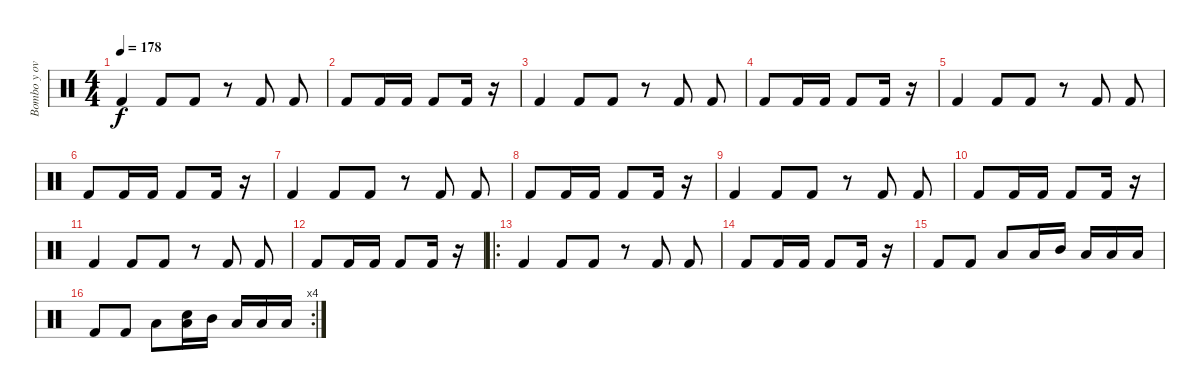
\track ("Bombo y overdubs (bateria)" "Bombo y ov") {instrument percussion}
\staff {score}
\articulation defaults
\ts (4 4)
\tempo 178
\clef neutral
\ks c "Kick (hit) 2".4{dy f} "Kick (hit) 2".8 "Kick (hit) 2".8
r.8 "Kick (hit) 2".8 "Kick (hit) 2".8 |
"Kick (hit) 2".8 "Kick (hit) 2".16 "Kick (hit) 2".16 "Kick (hit) 2".8 "Kick (hit) 2".16 r.16 |
"Kick (hit) 2".4 "Kick (hit) 2".8 "Kick (hit) 2".8 r.8 "Kick (hit) 2".8 "Kick (hit) 2".8 |
"Kick (hit) 2".8 "Kick (hit) 2".16 "Kick (hit) 2".16 "Kick (hit) 2".8 "Kick (hit) 2".16 r.16 |
"Kick (hit) 2".4 "Kick (hit) 2".8 "Kick (hit) 2".8 r.8 "Kick (hit) 2".8 "Kick (hit) 2".8 |
"Kick (hit) 2".8 "Kick (hit) 2".16 "Kick (hit) 2".16 "Kick (hit) 2".8 "Kick (hit) 2".16 r.16 |
"Kick (hit) 2".4 "Kick (hit) 2".8 "Kick (hit) 2".8 r.8 "Kick (hit) 2".8 "Kick (hit) 2".8 |
"Kick (hit) 2".8 "Kick (hit) 2".16 "Kick (hit) 2".16 "Kick (hit) 2".8 "Kick (hit) 2".16 r.16 |
"Kick (hit) 2".4 "Kick (hit) 2".8 "Kick (hit) 2".8 r.8 "Kick (hit) 2".8 "Kick (hit) 2".8 |
"Kick (hit) 2".8 "Kick (hit) 2".16 "Kick (hit) 2".16 "Kick (hit) 2".8 "Kick (hit) 2".16 r.16 |
"Kick (hit) 2".4 "Kick (hit) 2".8 "Kick (hit) 2".8 r.8 "Kick (hit) 2".8 "Kick (hit) 2".8 |
"Kick (hit) 2".8 "Kick (hit) 2".16 "Kick (hit) 2".16 "Kick (hit) 2".8 "Kick (hit) 2".16 r.16 |
\ro "Kick (hit) 2".4 "Kick (hit) 2".8 "Kick (hit) 2".8
r.8 "Kick (hit) 2".8 "Kick (hit) 2".8 |
"Kick (hit) 2".8 "Kick (hit) 2".16 "Kick (hit) 2".16 "Kick (hit) 2".8 "Kick (hit) 2".16 r.16 |
"Kick (hit) 2".8 "Kick (hit) 2".8 "Low Tom (hit)".8 "Low Tom (hit)".16 "Mid Tom (hit)".16 "Low Tom (hit)".16 "Low Tom (hit)".16 "Low Tom (hit)".16 |
\rc 4 "Kick (hit) 2".8 "Kick (hit) 2".8 "Low Tom (hit)".8
("Low Tom (hit)" "Snare (hit)").16 "Mid Tom (hit)".16 "Low Tom (hit)".16 "Low Tom (hit)".16 "Low Tom (hit)".16
